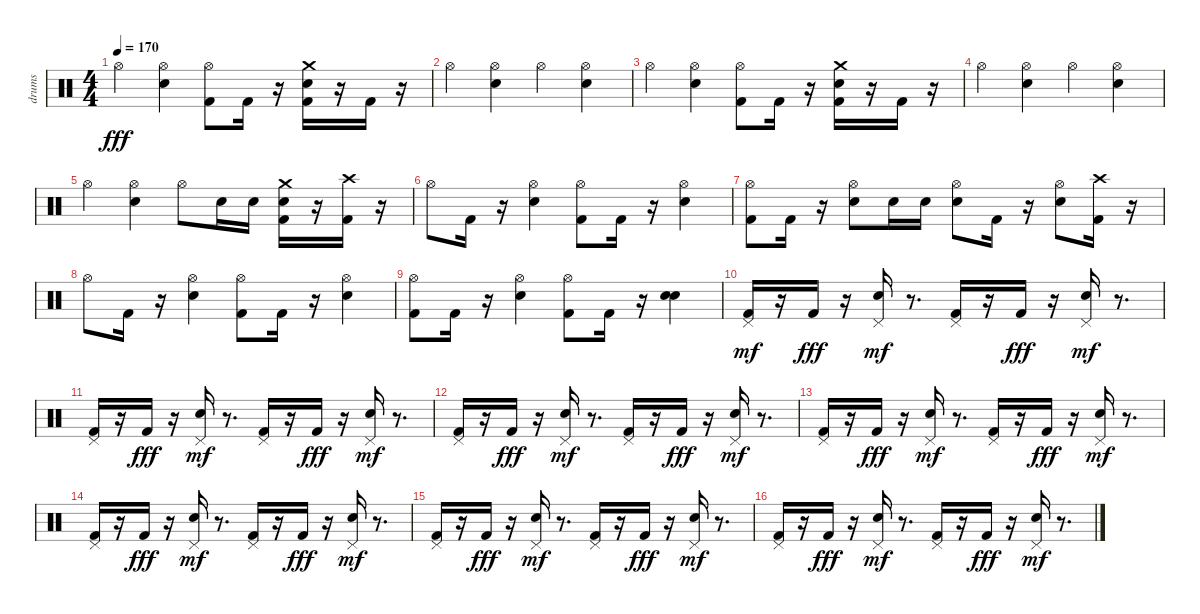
\track ("drums" "drums") {instrument percussion}
\staff {score}
\articulation defaults
\ts (4 4)
\tempo 170
\clef neutral
\ks c "Hi-Hat (open)".4{dy fff}
("Electric Snare (hit)" "Hi-Hat (open)").4 ("Kick (hit) 2" "Hi-Hat (open)").8 "Kick (hit) 2".16 r.16 ("Kick (hit) 2" "Electric Snare (hit)" "Crash medium (hit)").16 r.16 "Kick (hit) 2".16 r.16 |
"Hi-Hat (open)".4 ("Electric Snare (hit)" "Hi-Hat (open)").4 "Hi-Hat (open)".4 ("Electric Snare (hit)" "Hi-Hat (open)").4 |
"Hi-Hat (open)".4 ("Electric Snare (hit)" "Hi-Hat (open)").4 ("Kick (hit) 2" "Hi-Hat (open)").8 "Kick (hit) 2".16 r.16 ("Kick (hit) 2" "Electric Snare (hit)" "Crash medium (hit)").16 r.16 "Kick (hit) 2".16 r.16 |
"Hi-Hat (open)".4 ("Electric Snare (hit)" "Hi-Hat (open)").4 "Hi-Hat (open)".4 ("Electric Snare (hit)" "Hi-Hat (open)").4 |
"Hi-Hat (open)".4 ("Electric Snare (hit)" "Hi-Hat (open)").4 "Hi-Hat (open)".8 "Electric Snare (hit)".16 "Electric Snare (hit)".16 ("Kick (hit) 2" "Electric Snare (hit)" "Crash medium (hit)").16 r.16 ("Kick (hit) 2" "Crash high (hit)").16 r.16 |
"Hi-Hat (open)".8 "Kick (hit) 2".16 r.16 ("Electric Snare (hit)" "Hi-Hat (open)").4 ("Kick (hit) 2" "Hi-Hat (open)").8 "Kick (hit) 2".16 r.16 ("Electric Snare (hit)" "Hi-Hat (open)").4 |
("Kick (hit) 2" "Hi-Hat (open)").8 "Kick (hit) 2".16 r.16 ("Electric Snare (hit)" "Hi-Hat (open)").8 "Electric Snare (hit)".16 "Electric Snare (hit)".16 ("Hi-Hat (open)" "Electric Snare (hit)").8 "Kick (hit) 2".16 r.16 ("Hi-Hat (open)" "Electric Snare (hit)").8 ("Kick (hit) 2" "Crash high (hit)").16 r.16 |
"Hi-Hat (open)".8 "Kick (hit) 2".16 r.16 ("Electric Snare (hit)" "Hi-Hat (open)").4 ("Kick (hit) 2" "Hi-Hat (open)").8 "Kick (hit) 2".16 r.16 ("Electric Snare (hit)" "Hi-Hat (open)").4 |
("Kick (hit) 2" "Hi-Hat (open)").8 "Kick (hit) 2".16 r.16 ("Electric Snare (hit)" "Hi-Hat (open)").4 ("Kick (hit) 2" "Hi-Hat (open)").8 "Kick (hit) 2".16 r.16 ("Electric Snare (hit)" "Electric Snare (hit)").4 |
("Kick (hit) 2" "Pedal Hi-Hat (hit)").16{dy mf} r.16 "Kick (hit) 2".16{dy fff} r.16 ("Electric Snare (hit)" "Pedal Hi-Hat (hit)").16{dy mf} r.8{d} ("Kick (hit) 2" "Pedal Hi-Hat (hit)").16 r.16 "Kick (hit) 2".16{dy fff} r.16 ("Electric Snare (hit)" "Pedal Hi-Hat (hit)").16{dy mf} r.8{d} |
("Kick (hit) 2" "Pedal Hi-Hat (hit)").16 r.16 "Kick (hit) 2".16{dy fff} r.16 ("Electric Snare (hit)" "Pedal Hi-Hat (hit)").16{dy mf} r.8{d} ("Kick (hit) 2" "Pedal Hi-Hat (hit)").16 r.16 "Kick (hit) 2".16{dy fff} r.16 ("Electric Snare (hit)" "Pedal Hi-Hat (hit)").16{dy mf} r.8{d} |
("Kick (hit) 2" "Pedal Hi-Hat (hit)").16 r.16 "Kick (hit) 2".16{dy fff} r.16 ("Electric Snare (hit)" "Pedal Hi-Hat (hit)").16{dy mf} r.8{d} ("Kick (hit) 2" "Pedal Hi-Hat (hit)").16 r.16 "Kick (hit) 2".16{dy fff} r.16 ("Electric Snare (hit)" "Pedal Hi-Hat (hit)").16{dy mf} r.8{d} |
("Kick (hit) 2" "Pedal Hi-Hat (hit)").16 r.16 "Kick (hit) 2".16{dy fff} r.16 ("Electric Snare (hit)" "Pedal Hi-Hat (hit)").16{dy mf} r.8{d} ("Kick (hit) 2" "Pedal Hi-Hat (hit)").16 r.16 "Kick (hit) 2".16{dy fff} r.16 ("Electric Snare (hit)" "Pedal Hi-Hat (hit)").16{dy mf} r.8{d} |
("Kick (hit) 2" "Pedal Hi-Hat (hit)").16 r.16 "Kick (hit) 2".16{dy fff} r.16 ("Electric Snare (hit)" "Pedal Hi-Hat (hit)").16{dy mf} r.8{d} ("Kick (hit) 2" "Pedal Hi-Hat (hit)").16 r.16 "Kick (hit) 2".16{dy fff} r.16 ("Electric Snare (hit)" "Pedal Hi-Hat (hit)").16{dy mf} r.8{d} |
("Kick (hit) 2" "Pedal Hi-Hat (hit)").16 r.16 "Kick (hit) 2".16{dy fff} r.16 ("Electric Snare (hit)" "Pedal Hi-Hat (hit)").16{dy mf} r.8{d} ("Kick (hit) 2" "Pedal Hi-Hat (hit)").16 r.16 "Kick (hit) 2".16{dy fff} r.16 ("Electric Snare (hit)" "Pedal Hi-Hat (hit)").16{dy mf} r.8{d} |
("Kick (hit) 2" "Pedal Hi-Hat (hit)").16 r.16 "Kick (hit) 2".16{dy fff} r.16 ("Electric Snare (hit)" "Pedal Hi-Hat (hit)").16{dy mf} r.8{d} ("Kick (hit) 2" "Pedal Hi-Hat (hit)").16 r.16 "Kick (hit) 2".16{dy fff} r.16 ("Electric Snare (hit)" "Pedal Hi-Hat (hit)").16{dy mf} r.8{d}
